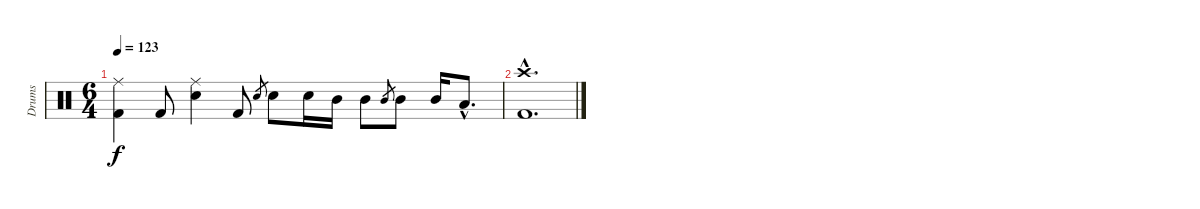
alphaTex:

\track ("Drums" "Drums") {instrument percussion}
\staff {score}
\articulation defaults
\ts (6 4)
\tempo 123
\clef neutral
\ks c
("Ride (middle)" "Kick (hit) 2").4{dy f} "Kick (hit) 2".8 ("Ride (middle)" "Snare (hit) 2").4 "Kick (hit) 2".8 "Snare (hit) 2".8{gr} "Snare (hit) 2".8 "Snare (hit) 2".16 "Mid Tom (hit)".16 "Mid Tom (hit)".8 "Mid Tom (hit)".8{gr} "Mid Tom (hit)".8 "Mid Tom (hit)".16 "Low Tom (hit)"{hac}.8{d} |
("Crash high (hit)"{hac} "Kick (hit) 2"{hac}).1{d}
